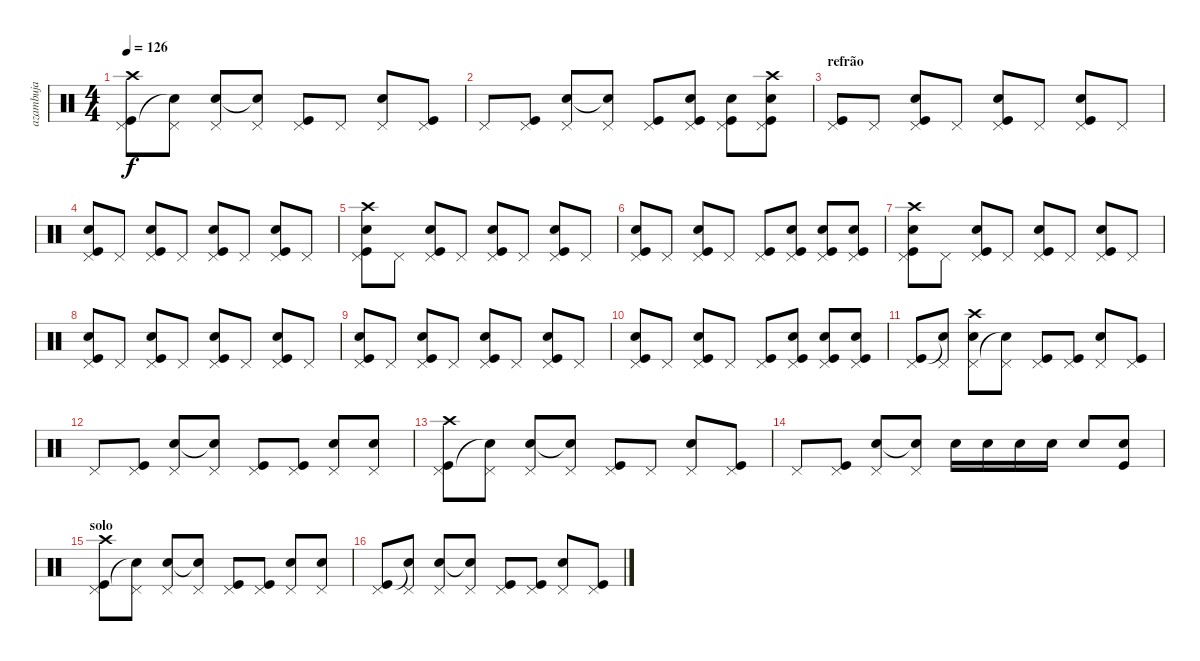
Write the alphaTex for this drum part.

\track ("azambuja" "azambuja") {instrument percussion}
\staff {score}
\articulation defaults
\ts (4 4)
\tempo 126
\clef neutral
\ks c
("Crash high (hit)" "Pedal Hi-Hat (hit)" "Kick (hit)").8{dy f} ("Pedal Hi-Hat (hit)" "Snare (hit)"{t}).8 ("Pedal Hi-Hat (hit)" "Snare (hit) 2").8 ("Pedal Hi-Hat (hit)" "Snare (hit) 2"{t}).8 ("Pedal Hi-Hat (hit)" "Kick (hit)").8 "Pedal Hi-Hat (hit)".8 ("Pedal Hi-Hat (hit)" "Snare (hit) 2").8 ("Pedal Hi-Hat (hit)" "Kick (hit)").8 |
"Pedal Hi-Hat (hit)".8 ("Pedal Hi-Hat (hit)" "Kick (hit)").8 ("Pedal Hi-Hat (hit)" "Snare (hit) 2").8 ("Pedal Hi-Hat (hit)" "Snare (hit) 2"{t}).8 ("Pedal Hi-Hat (hit)" "Kick (hit)").8 ("Pedal Hi-Hat (hit)" "Snare (hit) 2" "Kick (hit)").8 ("Pedal Hi-Hat (hit)" "Snare (hit) 2" "Kick (hit)").8 ("Crash high (hit)" "Pedal Hi-Hat (hit)" "Snare (hit) 2" "Kick (hit)").8 |
\section ("" "refrão")
("Pedal Hi-Hat (hit)" "Kick (hit)").8 "Pedal Hi-Hat (hit)".8 ("Pedal Hi-Hat (hit)" "Snare (hit) 2" "Kick (hit)").8 "Pedal Hi-Hat (hit)".8 ("Pedal Hi-Hat (hit)" "Snare (hit) 2" "Kick (hit)").8 "Pedal Hi-Hat (hit)".8 ("Pedal Hi-Hat (hit)" "Snare (hit) 2" "Kick (hit)").8 "Pedal Hi-Hat (hit)".8 |
("Pedal Hi-Hat (hit)" "Snare (hit) 2" "Kick (hit)").8 "Pedal Hi-Hat (hit)".8 ("Pedal Hi-Hat (hit)" "Snare (hit) 2" "Kick (hit)").8 "Pedal Hi-Hat (hit)".8 ("Pedal Hi-Hat (hit)" "Snare (hit) 2" "Kick (hit)").8 "Pedal Hi-Hat (hit)".8 ("Pedal Hi-Hat (hit)" "Snare (hit) 2" "Kick (hit)").8 "Pedal Hi-Hat (hit)".8 |
("Crash high (hit)" "Pedal Hi-Hat (hit)" "Snare (hit) 2" "Kick (hit)").8 "Pedal Hi-Hat (hit)".8 ("Pedal Hi-Hat (hit)" "Snare (hit) 2" "Kick (hit)").8 "Pedal Hi-Hat (hit)".8 ("Pedal Hi-Hat (hit)" "Snare (hit) 2" "Kick (hit)").8 "Pedal Hi-Hat (hit)".8 ("Pedal Hi-Hat (hit)" "Snare (hit) 2" "Kick (hit)").8 "Pedal Hi-Hat (hit)".8 |
("Pedal Hi-Hat (hit)" "Snare (hit) 2" "Kick (hit)").8 "Pedal Hi-Hat (hit)".8 ("Pedal Hi-Hat (hit)" "Snare (hit) 2" "Kick (hit)").8 "Pedal Hi-Hat (hit)".8 ("Pedal Hi-Hat (hit)" "Kick (hit)").8 ("Pedal Hi-Hat (hit)" "Snare (hit) 2" "Kick (hit)").8 ("Pedal Hi-Hat (hit)" "Snare (hit) 2" "Kick (hit)").8 ("Pedal Hi-Hat (hit)" "Snare (hit) 2" "Kick (hit)").8 |
("Crash high (hit)" "Pedal Hi-Hat (hit)" "Snare (hit) 2" "Kick (hit)").8 "Pedal Hi-Hat (hit)".8 ("Pedal Hi-Hat (hit)" "Snare (hit) 2" "Kick (hit)").8 "Pedal Hi-Hat (hit)".8 ("Pedal Hi-Hat (hit)" "Snare (hit) 2" "Kick (hit)").8 "Pedal Hi-Hat (hit)".8 ("Pedal Hi-Hat (hit)" "Snare (hit) 2" "Kick (hit)").8 "Pedal Hi-Hat (hit)".8 |
("Pedal Hi-Hat (hit)" "Snare (hit) 2" "Kick (hit)").8 "Pedal Hi-Hat (hit)".8 ("Pedal Hi-Hat (hit)" "Snare (hit) 2" "Kick (hit)").8 "Pedal Hi-Hat (hit)".8 ("Pedal Hi-Hat (hit)" "Snare (hit) 2" "Kick (hit)").8 "Pedal Hi-Hat (hit)".8 ("Pedal Hi-Hat (hit)" "Snare (hit) 2" "Kick (hit)").8 "Pedal Hi-Hat (hit)".8 |
("Pedal Hi-Hat (hit)" "Snare (hit) 2" "Kick (hit)").8 "Pedal Hi-Hat (hit)".8 ("Pedal Hi-Hat (hit)" "Snare (hit) 2" "Kick (hit)").8 "Pedal Hi-Hat (hit)".8 ("Pedal Hi-Hat (hit)" "Snare (hit) 2" "Kick (hit)").8 "Pedal Hi-Hat (hit)".8 ("Pedal Hi-Hat (hit)" "Snare (hit) 2" "Kick (hit)").8 "Pedal Hi-Hat (hit)".8 |
("Pedal Hi-Hat (hit)" "Snare (hit) 2" "Kick (hit)").8 "Pedal Hi-Hat (hit)".8 ("Pedal Hi-Hat (hit)" "Snare (hit) 2" "Kick (hit)").8 "Pedal Hi-Hat (hit)".8 ("Pedal Hi-Hat (hit)" "Kick (hit)").8 ("Pedal Hi-Hat (hit)" "Snare (hit) 2" "Kick (hit)").8 ("Pedal Hi-Hat (hit)" "Snare (hit) 2" "Kick (hit)").8 ("Pedal Hi-Hat (hit)" "Snare (hit) 2" "Kick (hit)").8 |
("Pedal Hi-Hat (hit)" "Kick (hit)").8 ("Pedal Hi-Hat (hit)" "Snare (hit)"{t}).8 ("Crash high (hit)" "Pedal Hi-Hat (hit)" "Snare (hit) 2").8 ("Pedal Hi-Hat (hit)" "Snare (hit) 2"{t}).8 ("Pedal Hi-Hat (hit)" "Kick (hit)").8 ("Pedal Hi-Hat (hit)" "Kick (hit)").8 ("Pedal Hi-Hat (hit)" "Snare (hit) 2").8 ("Pedal Hi-Hat (hit)" "Kick (hit)").8 |
"Pedal Hi-Hat (hit)".8 ("Pedal Hi-Hat (hit)" "Kick (hit)").8 ("Pedal Hi-Hat (hit)" "Snare (hit) 2").8 ("Pedal Hi-Hat (hit)" "Snare (hit) 2"{t}).8 ("Pedal Hi-Hat (hit)" "Kick (hit)").8 ("Pedal Hi-Hat (hit)" "Kick (hit)").8 ("Pedal Hi-Hat (hit)" "Snare (hit) 2").8 ("Pedal Hi-Hat (hit)" "Snare (hit) 2").8 |
("Crash high (hit)" "Pedal Hi-Hat (hit)" "Kick (hit)").8 ("Pedal Hi-Hat (hit)" "Snare (hit)"{t}).8 ("Pedal Hi-Hat (hit)" "Snare (hit) 2").8 ("Pedal Hi-Hat (hit)" "Snare (hit) 2"{t}).8 ("Pedal Hi-Hat (hit)" "Kick (hit)").8 "Pedal Hi-Hat (hit)".8 ("Pedal Hi-Hat (hit)" "Snare (hit) 2").8 ("Pedal Hi-Hat (hit)" "Kick (hit)").8 |
"Pedal Hi-Hat (hit)".8 ("Pedal Hi-Hat (hit)" "Kick (hit)").8 ("Pedal Hi-Hat (hit)" "Snare (hit) 2").8 ("Pedal Hi-Hat (hit)" "Snare (hit) 2"{t}).8 "Snare (hit) 2".16 "Snare (hit) 2".16 "Snare (hit) 2".16 "Snare (hit) 2".16 "Snare (hit) 2".8 ("Snare (hit) 2" "Kick (hit)").8 |
\section ("" "solo")
("Crash high (hit)" "Pedal Hi-Hat (hit)" "Kick (hit)").8 ("Pedal Hi-Hat (hit)" "Snare (hit)"{t}).8 ("Pedal Hi-Hat (hit)" "Snare (hit) 2").8 ("Pedal Hi-Hat (hit)" "Snare (hit) 2"{t}).8 ("Pedal Hi-Hat (hit)" "Kick (hit)").8 ("Pedal Hi-Hat (hit)" "Kick (hit)").8 ("Pedal Hi-Hat (hit)" "Snare (hit) 2").8 ("Pedal Hi-Hat (hit)" "Snare (hit) 2").8 |
("Pedal Hi-Hat (hit)" "Kick (hit)").8 ("Pedal Hi-Hat (hit)" "Snare (hit)"{t}).8 ("Pedal Hi-Hat (hit)" "Snare (hit) 2").8 ("Pedal Hi-Hat (hit)" "Snare (hit) 2"{t}).8 ("Pedal Hi-Hat (hit)" "Kick (hit)").8 ("Pedal Hi-Hat (hit)" "Kick (hit)").8 ("Pedal Hi-Hat (hit)" "Snare (hit) 2").8 ("Pedal Hi-Hat (hit)" "Kick (hit)").8
